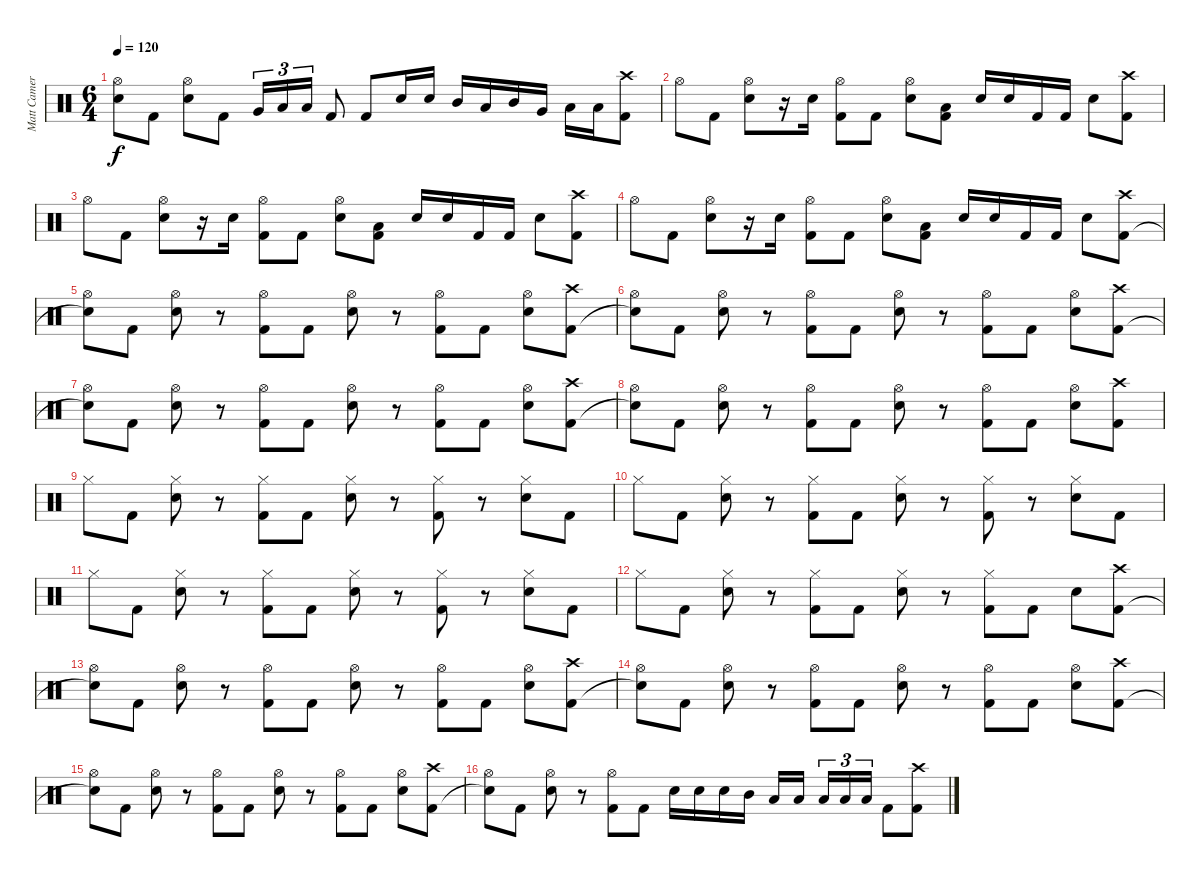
\track ("Matt Cameron (Drums)" "Matt Camer") {instrument percussion}
\staff {score}
\articulation defaults
\ts (6 4)
\tempo 120
\clef neutral
\ks c
("Hi-Hat (open)" "Snare (hit)"{t}).8{dy f} "Kick (hit) 2".8 ("Hi-Hat (open)" "Electric Snare (hit)").8 "Kick (hit) 2".8 "Very Low Tom (hit)".16{tu (3 2)} "Low Tom (hit)".16{tu (3 2)} "Low Floor Tom (hit)".16{tu (3 2)} "Kick (hit) 2".8 "Kick (hit) 2".8 "Electric Snare (hit)".16 "Electric Snare (hit)".16 "Mid Tom (hit)".16 "Low Tom (hit)".16 "Mid Tom (hit)".16 "Very Low Tom (hit)".16 "Low Floor Tom (hit)".16 "Low Floor Tom (hit)".16 ("Crash high (hit)" "Kick (hit) 2").8 |
"Hi-Hat (open)".8 "Kick (hit) 2".8 ("Hi-Hat (open)" "Electric Snare (hit)").8 r.16 "Electric Snare (hit)".16 ("Hi-Hat (open)" "Kick (hit) 2").8 "Kick (hit) 2".8 ("Hi-Hat (open)" "Electric Snare (hit)").8 ("Low Floor Tom (hit)" "Kick (hit) 2").8 "Electric Snare (hit)".16 "Electric Snare (hit)".16 "Kick (hit) 2".16 "Kick (hit) 2".16 "Electric Snare (hit)".8 ("Crash high (hit)" "Kick (hit) 2").8 |
"Hi-Hat (open)".8 "Kick (hit) 2".8 ("Hi-Hat (open)" "Electric Snare (hit)").8 r.16 "Electric Snare (hit)".16 ("Hi-Hat (open)" "Kick (hit) 2").8 "Kick (hit) 2".8 ("Hi-Hat (open)" "Electric Snare (hit)").8 ("Low Floor Tom (hit)" "Kick (hit) 2").8 "Electric Snare (hit)".16 "Electric Snare (hit)".16 "Kick (hit) 2".16 "Kick (hit) 2".16 "Electric Snare (hit)".8 ("Crash high (hit)" "Kick (hit) 2").8 |
"Hi-Hat (open)".8 "Kick (hit) 2".8 ("Hi-Hat (open)" "Electric Snare (hit)").8 r.16 "Electric Snare (hit)".16 ("Hi-Hat (open)" "Kick (hit) 2").8 "Kick (hit) 2".8 ("Hi-Hat (open)" "Electric Snare (hit)").8 ("Low Floor Tom (hit)" "Kick (hit) 2").8 "Electric Snare (hit)".16 "Electric Snare (hit)".16 "Kick (hit) 2".16 "Kick (hit) 2".16 "Electric Snare (hit)".8 ("Crash high (hit)" "Kick (hit) 2").8 |
("Hi-Hat (open)" "Snare (hit)"{t}).8 "Kick (hit) 2".8 ("Hi-Hat (open)" "Electric Snare (hit)").8 r.8 ("Hi-Hat (open)" "Kick (hit) 2").8 "Kick (hit) 2".8 ("Hi-Hat (open)" "Electric Snare (hit)").8 r.8 ("Hi-Hat (open)" "Kick (hit) 2").8 "Kick (hit) 2".8 ("Hi-Hat (open)" "Electric Snare (hit)").8 ("Crash high (hit)" "Kick (hit) 2").8 |
("Hi-Hat (open)" "Snare (hit)"{t}).8 "Kick (hit) 2".8 ("Hi-Hat (open)" "Electric Snare (hit)").8 r.8 ("Hi-Hat (open)" "Kick (hit) 2").8 "Kick (hit) 2".8 ("Hi-Hat (open)" "Electric Snare (hit)").8 r.8 ("Hi-Hat (open)" "Kick (hit) 2").8 "Kick (hit) 2".8 ("Hi-Hat (open)" "Electric Snare (hit)").8 ("Crash high (hit)" "Kick (hit) 2").8 |
("Hi-Hat (open)" "Snare (hit)"{t}).8 "Kick (hit) 2".8 ("Hi-Hat (open)" "Electric Snare (hit)").8 r.8 ("Hi-Hat (open)" "Kick (hit) 2").8 "Kick (hit) 2".8 ("Hi-Hat (open)" "Electric Snare (hit)").8 r.8 ("Hi-Hat (open)" "Kick (hit) 2").8 "Kick (hit) 2".8 ("Hi-Hat (open)" "Electric Snare (hit)").8 ("Crash high (hit)" "Kick (hit) 2").8 |
("Hi-Hat (open)" "Snare (hit)"{t}).8 "Kick (hit) 2".8 ("Hi-Hat (open)" "Electric Snare (hit)").8 r.8 ("Hi-Hat (open)" "Kick (hit) 2").8 "Kick (hit) 2".8 ("Hi-Hat (open)" "Electric Snare (hit)").8 r.8 ("Hi-Hat (open)" "Kick (hit) 2").8 "Kick (hit) 2".8 ("Hi-Hat (open)" "Electric Snare (hit)").8 ("Crash high (hit)" "Kick (hit) 2").8 |
"Hi-Hat (closed)".8 "Kick (hit) 2".8 ("Hi-Hat (closed)" "Electric Snare (hit)").8 r.8 ("Hi-Hat (closed)" "Kick (hit) 2").8 "Kick (hit) 2".8 ("Hi-Hat (closed)" "Electric Snare (hit)").8 r.8 ("Hi-Hat (closed)" "Kick (hit) 2").8 r.8 ("Hi-Hat (closed)" "Electric Snare (hit)").8 "Kick (hit) 2".8 |
"Hi-Hat (closed)".8 "Kick (hit) 2".8 ("Hi-Hat (closed)" "Electric Snare (hit)").8 r.8 ("Hi-Hat (closed)" "Kick (hit) 2").8 "Kick (hit) 2".8 ("Hi-Hat (closed)" "Electric Snare (hit)").8 r.8 ("Hi-Hat (closed)" "Kick (hit) 2").8 r.8 ("Hi-Hat (closed)" "Electric Snare (hit)").8 "Kick (hit) 2".8 |
"Hi-Hat (closed)".8 "Kick (hit) 2".8 ("Hi-Hat (closed)" "Electric Snare (hit)").8 r.8 ("Hi-Hat (closed)" "Kick (hit) 2").8 "Kick (hit) 2".8 ("Hi-Hat (closed)" "Electric Snare (hit)").8 r.8 ("Hi-Hat (closed)" "Kick (hit) 2").8 r.8 ("Hi-Hat (closed)" "Electric Snare (hit)").8 "Kick (hit) 2".8 |
"Hi-Hat (closed)".8 "Kick (hit) 2".8 ("Hi-Hat (closed)" "Electric Snare (hit)").8 r.8 ("Hi-Hat (closed)" "Kick (hit) 2").8 "Kick (hit) 2".8 ("Hi-Hat (closed)" "Electric Snare (hit)").8 r.8 ("Hi-Hat (closed)" "Kick (hit) 2").8 "Kick (hit) 2".8 "Electric Snare (hit)".8 ("Crash high (hit)" "Kick (hit) 2").8 |
("Hi-Hat (open)" "Snare (hit)"{t}).8 "Kick (hit) 2".8 ("Hi-Hat (open)" "Electric Snare (hit)").8 r.8 ("Hi-Hat (open)" "Kick (hit) 2").8 "Kick (hit) 2".8 ("Hi-Hat (open)" "Electric Snare (hit)").8 r.8 ("Hi-Hat (open)" "Kick (hit) 2").8 "Kick (hit) 2".8 ("Hi-Hat (open)" "Electric Snare (hit)").8 ("Crash high (hit)" "Kick (hit) 2").8 |
("Hi-Hat (open)" "Snare (hit)"{t}).8 "Kick (hit) 2".8 ("Hi-Hat (open)" "Electric Snare (hit)").8 r.8 ("Hi-Hat (open)" "Kick (hit) 2").8 "Kick (hit) 2".8 ("Hi-Hat (open)" "Electric Snare (hit)").8 r.8 ("Hi-Hat (open)" "Kick (hit) 2").8 "Kick (hit) 2".8 ("Hi-Hat (open)" "Electric Snare (hit)").8 ("Crash high (hit)" "Kick (hit) 2").8 |
("Hi-Hat (open)" "Snare (hit)"{t}).8 "Kick (hit) 2".8 ("Hi-Hat (open)" "Electric Snare (hit)").8 r.8 ("Hi-Hat (open)" "Kick (hit) 2").8 "Kick (hit) 2".8 ("Hi-Hat (open)" "Electric Snare (hit)").8 r.8 ("Hi-Hat (open)" "Kick (hit) 2").8 "Kick (hit) 2".8 ("Hi-Hat (open)" "Electric Snare (hit)").8 ("Crash high (hit)" "Kick (hit) 2").8 |
("Hi-Hat (open)" "Snare (hit)"{t}).8 "Kick (hit) 2".8 ("Hi-Hat (open)" "Electric Snare (hit)").8 r.8 ("Hi-Hat (open)" "Kick (hit) 2").8 "Kick (hit) 2".8 "Electric Snare (hit)".16 "Electric Snare (hit)".16 "Electric Snare (hit)".16 "Mid Tom (hit)".16 "Low Tom (hit)".16 "Low Tom (hit)".16 "Low Floor Tom (hit)".16{tu (3 2)} "Low Floor Tom (hit)".16{tu (3 2)} "Low Floor Tom (hit)".16{tu (3 2)} "Kick (hit) 2".8 ("Crash high (hit)" "Kick (hit) 2").8
